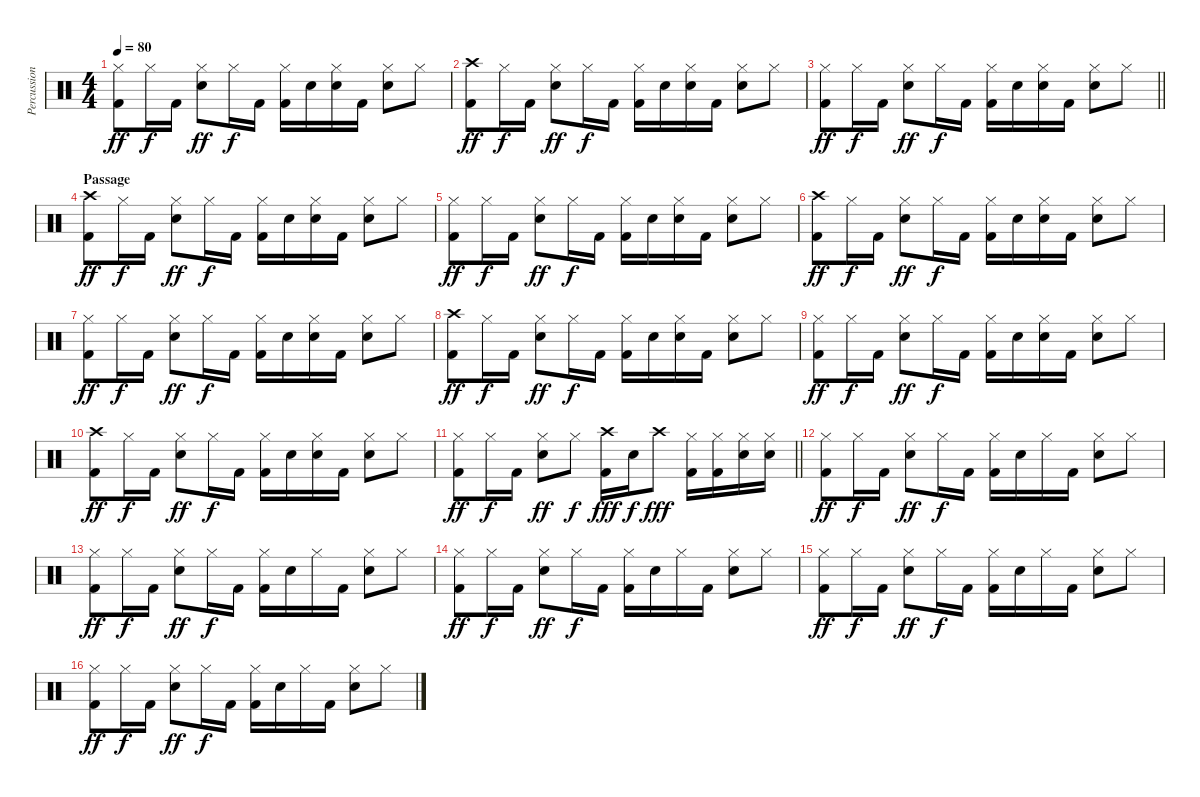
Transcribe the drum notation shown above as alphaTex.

\track ("Percussion (Stieven)" "Percussion") {instrument percussion}
\staff {score}
\articulation defaults
\ts (4 4)
\tempo 80
\clef neutral
\ks c
("Hi-Hat (closed)" "Kick (hit) 2").8{dy ff} "Hi-Hat (closed)".16{dy f} "Kick (hit) 2".16 ("Hi-Hat (closed)" "Snare (hit) 2").8{dy ff} "Hi-Hat (closed)".16{dy f} "Kick (hit) 2".16 ("Hi-Hat (closed)" "Kick (hit) 2").16 "Snare (hit) 2".16 ("Hi-Hat (closed)" "Snare (hit) 2").16 "Kick (hit) 2".16 ("Hi-Hat (closed)" "Snare (hit) 2").8 "Hi-Hat (closed)".8 |
("Crash high (hit)" "Kick (hit) 2").8{dy ff} "Hi-Hat (closed)".16{dy f} "Kick (hit) 2".16 ("Hi-Hat (closed)" "Snare (hit) 2").8{dy ff} "Hi-Hat (closed)".16{dy f} "Kick (hit) 2".16 ("Hi-Hat (closed)" "Kick (hit) 2").16 "Snare (hit) 2".16 ("Hi-Hat (closed)" "Snare (hit) 2").16 "Kick (hit) 2".16 ("Hi-Hat (closed)" "Snare (hit) 2").8 "Hi-Hat (closed)".8 |
\barLineRight lightlight
("Hi-Hat (closed)" "Kick (hit) 2").8{dy ff} "Hi-Hat (closed)".16{dy f} "Kick (hit) 2".16 ("Hi-Hat (closed)" "Snare (hit) 2").8{dy ff} "Hi-Hat (closed)".16{dy f} "Kick (hit) 2".16 ("Hi-Hat (closed)" "Kick (hit) 2").16 "Snare (hit) 2".16 ("Hi-Hat (closed)" "Snare (hit) 2").16 "Kick (hit) 2".16 ("Hi-Hat (closed)" "Snare (hit) 2").8 "Hi-Hat (closed)".8 |
\section ("" "Passage")
("Crash high (hit)" "Kick (hit) 2").8{dy ff} "Hi-Hat (closed)".16{dy f} "Kick (hit) 2".16 ("Hi-Hat (closed)" "Snare (hit) 2").8{dy ff} "Hi-Hat (closed)".16{dy f} "Kick (hit) 2".16 ("Hi-Hat (closed)" "Kick (hit) 2").16 "Snare (hit) 2".16 ("Hi-Hat (closed)" "Snare (hit) 2").16 "Kick (hit) 2".16 ("Hi-Hat (closed)" "Snare (hit) 2").8 "Hi-Hat (closed)".8 |
("Hi-Hat (closed)" "Kick (hit) 2").8{dy ff} "Hi-Hat (closed)".16{dy f} "Kick (hit) 2".16 ("Hi-Hat (closed)" "Snare (hit) 2").8{dy ff} "Hi-Hat (closed)".16{dy f} "Kick (hit) 2".16 ("Hi-Hat (closed)" "Kick (hit) 2").16 "Snare (hit) 2".16 ("Hi-Hat (closed)" "Snare (hit) 2").16 "Kick (hit) 2".16 ("Hi-Hat (closed)" "Snare (hit) 2").8 "Hi-Hat (closed)".8 |
("Crash high (hit)" "Kick (hit) 2").8{dy ff} "Hi-Hat (closed)".16{dy f} "Kick (hit) 2".16 ("Hi-Hat (closed)" "Snare (hit) 2").8{dy ff} "Hi-Hat (closed)".16{dy f} "Kick (hit) 2".16 ("Hi-Hat (closed)" "Kick (hit) 2").16 "Snare (hit) 2".16 ("Hi-Hat (closed)" "Snare (hit) 2").16 "Kick (hit) 2".16 ("Hi-Hat (closed)" "Snare (hit) 2").8 "Hi-Hat (closed)".8 |
("Hi-Hat (closed)" "Kick (hit) 2").8{dy ff} "Hi-Hat (closed)".16{dy f} "Kick (hit) 2".16 ("Hi-Hat (closed)" "Snare (hit) 2").8{dy ff} "Hi-Hat (closed)".16{dy f} "Kick (hit) 2".16 ("Hi-Hat (closed)" "Kick (hit) 2").16 "Snare (hit) 2".16 ("Hi-Hat (closed)" "Snare (hit) 2").16 "Kick (hit) 2".16 ("Hi-Hat (closed)" "Snare (hit) 2").8 "Hi-Hat (closed)".8 |
("Crash high (hit)" "Kick (hit) 2").8{dy ff} "Hi-Hat (closed)".16{dy f} "Kick (hit) 2".16 ("Hi-Hat (closed)" "Snare (hit) 2").8{dy ff} "Hi-Hat (closed)".16{dy f} "Kick (hit) 2".16 ("Hi-Hat (closed)" "Kick (hit) 2").16 "Snare (hit) 2".16 ("Hi-Hat (closed)" "Snare (hit) 2").16 "Kick (hit) 2".16 ("Hi-Hat (closed)" "Snare (hit) 2").8 "Hi-Hat (closed)".8 |
("Hi-Hat (closed)" "Kick (hit) 2").8{dy ff} "Hi-Hat (closed)".16{dy f} "Kick (hit) 2".16 ("Hi-Hat (closed)" "Snare (hit) 2").8{dy ff} "Hi-Hat (closed)".16{dy f} "Kick (hit) 2".16 ("Hi-Hat (closed)" "Kick (hit) 2").16 "Snare (hit) 2".16 ("Hi-Hat (closed)" "Snare (hit) 2").16 "Kick (hit) 2".16 ("Hi-Hat (closed)" "Snare (hit) 2").8 "Hi-Hat (closed)".8 |
("Crash high (hit)" "Kick (hit) 2").8{dy ff} "Hi-Hat (closed)".16{dy f} "Kick (hit) 2".16 ("Hi-Hat (closed)" "Snare (hit) 2").8{dy ff} "Hi-Hat (closed)".16{dy f} "Kick (hit) 2".16 ("Hi-Hat (closed)" "Kick (hit) 2").16 "Snare (hit) 2".16 ("Hi-Hat (closed)" "Snare (hit) 2").16 "Kick (hit) 2".16 ("Hi-Hat (closed)" "Snare (hit) 2").8 "Hi-Hat (closed)".8 |
\barLineRight lightlight
("Hi-Hat (closed)" "Kick (hit) 2").8{dy ff} "Hi-Hat (closed)".16{dy f} "Kick (hit) 2".16 ("Hi-Hat (closed)" "Snare (hit) 2").8{dy ff} "Hi-Hat (closed)".8{dy f} ("Crash high (hit)" "Kick (hit) 2").16{dy fff} "Snare (hit) 2".16{dy f} "Crash high (hit)".8{dy fff} ("Hi-Hat (closed)" "Kick (hit) 2").16 ("Hi-Hat (closed)" "Kick (hit) 2").16 ("Hi-Hat (closed)" "Snare (hit) 2").16 ("Hi-Hat (closed)" "Snare (hit) 2").16 |
("Hi-Hat (closed)" "Kick (hit) 2").8{dy ff} "Hi-Hat (closed)".16{dy f} "Kick (hit) 2".16 ("Hi-Hat (closed)" "Snare (hit) 2").8{dy ff} "Hi-Hat (closed)".16{dy f} "Kick (hit) 2".16 ("Hi-Hat (closed)" "Kick (hit) 2").16 "Snare (hit) 2".16 "Hi-Hat (closed)".16 "Kick (hit) 2".16 ("Hi-Hat (closed)" "Snare (hit) 2").8 "Hi-Hat (closed)".8 |
("Hi-Hat (closed)" "Kick (hit) 2").8{dy ff} "Hi-Hat (closed)".16{dy f} "Kick (hit) 2".16 ("Hi-Hat (closed)" "Snare (hit) 2").8{dy ff} "Hi-Hat (closed)".16{dy f} "Kick (hit) 2".16 ("Hi-Hat (closed)" "Kick (hit) 2").16 "Snare (hit) 2".16 "Hi-Hat (closed)".16 "Kick (hit) 2".16 ("Hi-Hat (closed)" "Snare (hit) 2").8 "Hi-Hat (closed)".8 |
("Hi-Hat (closed)" "Kick (hit) 2").8{dy ff} "Hi-Hat (closed)".16{dy f} "Kick (hit) 2".16 ("Hi-Hat (closed)" "Snare (hit) 2").8{dy ff} "Hi-Hat (closed)".16{dy f} "Kick (hit) 2".16 ("Hi-Hat (closed)" "Kick (hit) 2").16 "Snare (hit) 2".16 "Hi-Hat (closed)".16 "Kick (hit) 2".16 ("Hi-Hat (closed)" "Snare (hit) 2").8 "Hi-Hat (closed)".8 |
("Hi-Hat (closed)" "Kick (hit) 2").8{dy ff} "Hi-Hat (closed)".16{dy f} "Kick (hit) 2".16 ("Hi-Hat (closed)" "Snare (hit) 2").8{dy ff} "Hi-Hat (closed)".16{dy f} "Kick (hit) 2".16 ("Hi-Hat (closed)" "Kick (hit) 2").16 "Snare (hit) 2".16 "Hi-Hat (closed)".16 "Kick (hit) 2".16 ("Hi-Hat (closed)" "Snare (hit) 2").8 "Hi-Hat (closed)".8 |
("Hi-Hat (closed)" "Kick (hit) 2").8{dy ff} "Hi-Hat (closed)".16{dy f} "Kick (hit) 2".16 ("Hi-Hat (closed)" "Snare (hit) 2").8{dy ff} "Hi-Hat (closed)".16{dy f} "Kick (hit) 2".16 ("Hi-Hat (closed)" "Kick (hit) 2").16 "Snare (hit) 2".16 "Hi-Hat (closed)".16 "Kick (hit) 2".16 ("Hi-Hat (closed)" "Snare (hit) 2").8 "Hi-Hat (closed)".8
